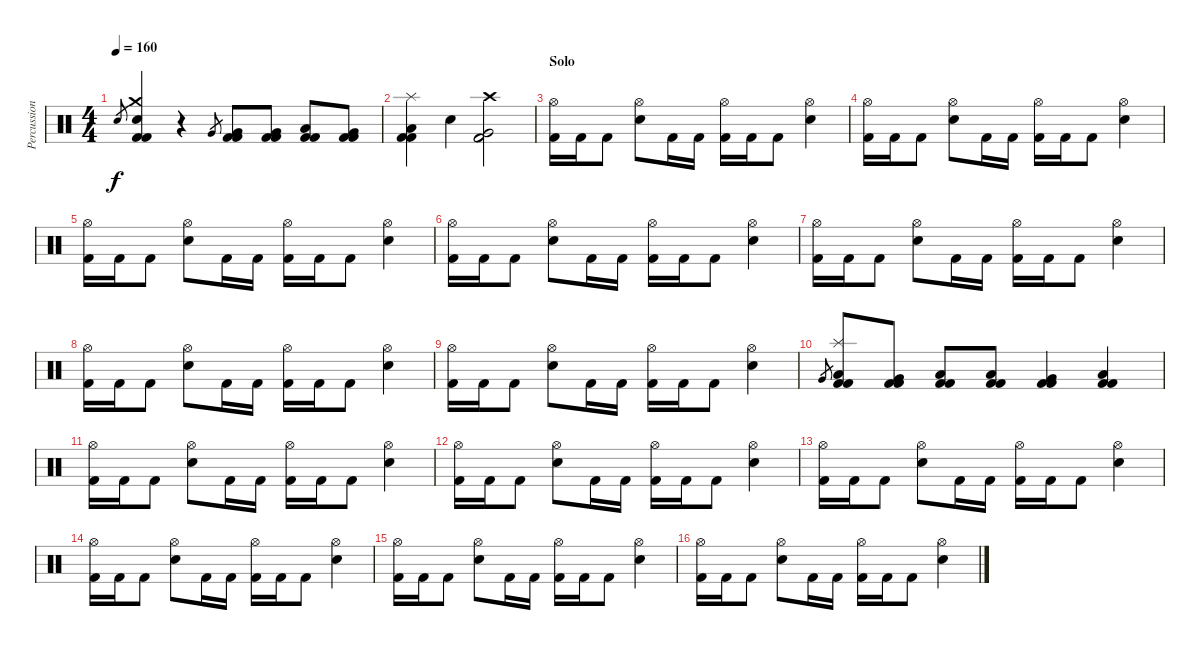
\track ("Percussions" "Percussion") {instrument percussion}
\staff {score}
\articulation defaults
\ts (4 4)
\tempo 160
\clef neutral
\ks c "Electric Snare (hit)".8{gr dy f}
("Crash medium (hit)" "Electric Snare (hit)" "Kick (hit) 2" "Kick (hit) 2").4 r.4 "Very Low Tom (hit)".8{gr} ("Very Low Tom (hit)" "Kick (hit) 2" "Kick (hit) 2").8 ("Very Low Tom (hit)" "Kick (hit) 2" "Kick (hit) 2").8 ("Low Floor Tom (hit)" "Kick (hit) 2" "Kick (hit) 2").8 ("Very Low Tom (hit)" "Kick (hit) 2" "Kick (hit) 2").8 |
("Splash (hit)" "Low Floor Tom (hit)" "Kick (hit) 2" "Kick (hit) 2").4 "Electric Snare (hit)".4 ("Crash high (hit)" "Very Low Tom (hit)" "Kick (hit) 2" "Kick (hit) 2").2 |
\section ("" "Solo")
("Hi-Hat (open)" "Kick (hit) 2").16 "Kick (hit) 2".16 "Kick (hit) 2".8 ("Electric Snare (hit)" "Hi-Hat (open)").8 "Kick (hit) 2".16 "Kick (hit) 2".16 ("Hi-Hat (open)" "Kick (hit) 2").16 "Kick (hit) 2".16 "Kick (hit) 2".8 ("Electric Snare (hit)" "Hi-Hat (open)").4 |
("Hi-Hat (open)" "Kick (hit) 2").16 "Kick (hit) 2".16 "Kick (hit) 2".8 ("Electric Snare (hit)" "Hi-Hat (open)").8 "Kick (hit) 2".16 "Kick (hit) 2".16 ("Hi-Hat (open)" "Kick (hit) 2").16 "Kick (hit) 2".16 "Kick (hit) 2".8 ("Electric Snare (hit)" "Hi-Hat (open)").4 |
("Hi-Hat (open)" "Kick (hit) 2").16 "Kick (hit) 2".16 "Kick (hit) 2".8 ("Electric Snare (hit)" "Hi-Hat (open)").8 "Kick (hit) 2".16 "Kick (hit) 2".16 ("Hi-Hat (open)" "Kick (hit) 2").16 "Kick (hit) 2".16 "Kick (hit) 2".8 ("Electric Snare (hit)" "Hi-Hat (open)").4 |
("Hi-Hat (open)" "Kick (hit) 2").16 "Kick (hit) 2".16 "Kick (hit) 2".8 ("Electric Snare (hit)" "Hi-Hat (open)").8 "Kick (hit) 2".16 "Kick (hit) 2".16 ("Hi-Hat (open)" "Kick (hit) 2").16 "Kick (hit) 2".16 "Kick (hit) 2".8 ("Electric Snare (hit)" "Hi-Hat (open)").4 |
("Hi-Hat (open)" "Kick (hit) 2").16 "Kick (hit) 2".16 "Kick (hit) 2".8 ("Electric Snare (hit)" "Hi-Hat (open)").8 "Kick (hit) 2".16 "Kick (hit) 2".16 ("Hi-Hat (open)" "Kick (hit) 2").16 "Kick (hit) 2".16 "Kick (hit) 2".8 ("Electric Snare (hit)" "Hi-Hat (open)").4 |
("Hi-Hat (open)" "Kick (hit) 2").16 "Kick (hit) 2".16 "Kick (hit) 2".8 ("Electric Snare (hit)" "Hi-Hat (open)").8 "Kick (hit) 2".16 "Kick (hit) 2".16 ("Hi-Hat (open)" "Kick (hit) 2").16 "Kick (hit) 2".16 "Kick (hit) 2".8 ("Electric Snare (hit)" "Hi-Hat (open)").4 |
("Hi-Hat (open)" "Kick (hit) 2").16 "Kick (hit) 2".16 "Kick (hit) 2".8 ("Electric Snare (hit)" "Hi-Hat (open)").8 "Kick (hit) 2".16 "Kick (hit) 2".16 ("Hi-Hat (open)" "Kick (hit) 2").16 "Kick (hit) 2".16 "Kick (hit) 2".8 ("Electric Snare (hit)" "Hi-Hat (open)").4 |
"Very Low Tom (hit)".8{gr} ("Splash (hit)" "Low Tom (hit)" "Kick (hit) 2" "Kick (hit) 2").8 ("Very Low Tom (hit)" "Kick (hit) 2" "Kick (hit) 2").8 ("Low Floor Tom (hit)" "Kick (hit) 2" "Kick (hit) 2").8 ("Low Tom (hit)" "Kick (hit) 2" "Kick (hit) 2").8 ("Very Low Tom (hit)" "Kick (hit) 2" "Kick (hit) 2").4 ("Low Floor Tom (hit)" "Kick (hit) 2" "Kick (hit) 2").4 |
("Hi-Hat (open)" "Kick (hit) 2").16 "Kick (hit) 2".16 "Kick (hit) 2".8 ("Electric Snare (hit)" "Hi-Hat (open)").8 "Kick (hit) 2".16 "Kick (hit) 2".16 ("Hi-Hat (open)" "Kick (hit) 2").16 "Kick (hit) 2".16 "Kick (hit) 2".8 ("Electric Snare (hit)" "Hi-Hat (open)").4 |
("Hi-Hat (open)" "Kick (hit) 2").16 "Kick (hit) 2".16 "Kick (hit) 2".8 ("Electric Snare (hit)" "Hi-Hat (open)").8 "Kick (hit) 2".16 "Kick (hit) 2".16 ("Hi-Hat (open)" "Kick (hit) 2").16 "Kick (hit) 2".16 "Kick (hit) 2".8 ("Electric Snare (hit)" "Hi-Hat (open)").4 |
("Hi-Hat (open)" "Kick (hit) 2").16 "Kick (hit) 2".16 "Kick (hit) 2".8 ("Electric Snare (hit)" "Hi-Hat (open)").8 "Kick (hit) 2".16 "Kick (hit) 2".16 ("Hi-Hat (open)" "Kick (hit) 2").16 "Kick (hit) 2".16 "Kick (hit) 2".8 ("Electric Snare (hit)" "Hi-Hat (open)").4 |
("Hi-Hat (open)" "Kick (hit) 2").16 "Kick (hit) 2".16 "Kick (hit) 2".8 ("Electric Snare (hit)" "Hi-Hat (open)").8 "Kick (hit) 2".16 "Kick (hit) 2".16 ("Hi-Hat (open)" "Kick (hit) 2").16 "Kick (hit) 2".16 "Kick (hit) 2".8 ("Electric Snare (hit)" "Hi-Hat (open)").4 |
("Hi-Hat (open)" "Kick (hit) 2").16 "Kick (hit) 2".16 "Kick (hit) 2".8 ("Electric Snare (hit)" "Hi-Hat (open)").8 "Kick (hit) 2".16 "Kick (hit) 2".16 ("Hi-Hat (open)" "Kick (hit) 2").16 "Kick (hit) 2".16 "Kick (hit) 2".8 ("Electric Snare (hit)" "Hi-Hat (open)").4 |
("Hi-Hat (open)" "Kick (hit) 2").16 "Kick (hit) 2".16 "Kick (hit) 2".8 ("Electric Snare (hit)" "Hi-Hat (open)").8 "Kick (hit) 2".16 "Kick (hit) 2".16 ("Hi-Hat (open)" "Kick (hit) 2").16 "Kick (hit) 2".16 "Kick (hit) 2".8 ("Electric Snare (hit)" "Hi-Hat (open)").4
